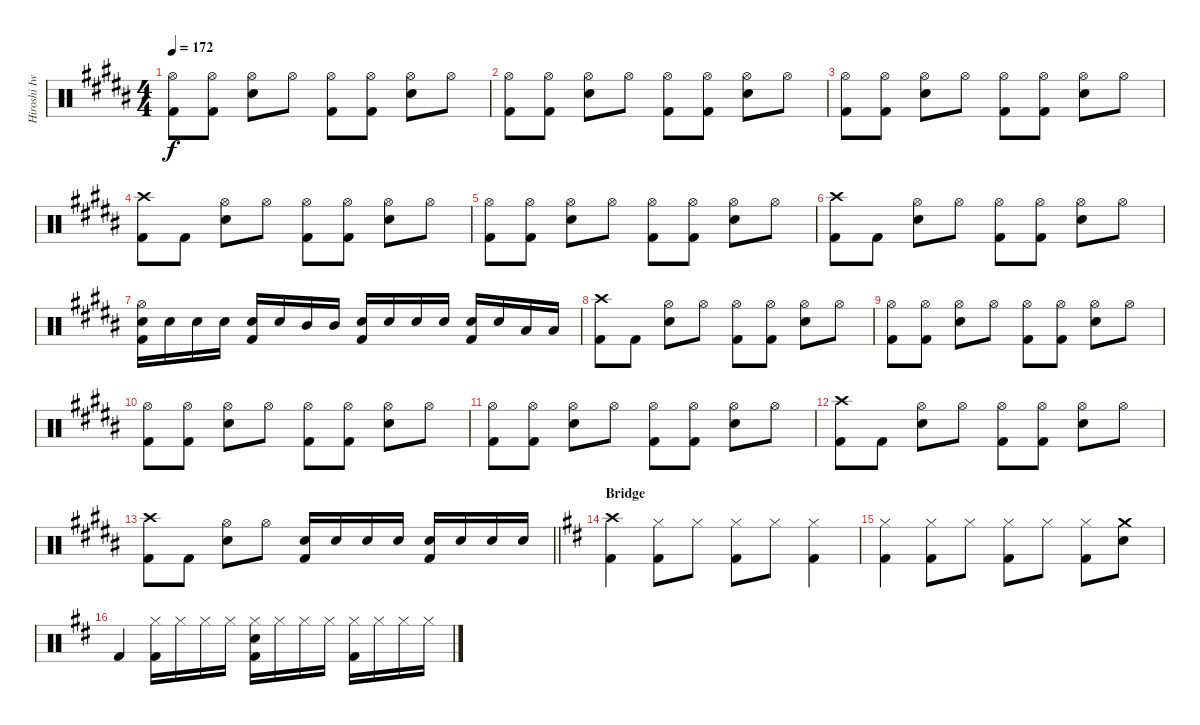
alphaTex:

\track ("Hiroshi Iwasaki - Drums" "Hiroshi Iw") {instrument percussion}
\staff {score}
\articulation defaults
\ts (4 4)
\tempo 172
\clef neutral
\ks b
("Hi-Hat (open)" "Kick (hit) 2").8{dy f} ("Hi-Hat (open)" "Kick (hit) 2").8 ("Snare (hit) 2" "Hi-Hat (open)").8 "Hi-Hat (open)".8 ("Hi-Hat (open)" "Kick (hit) 2").8 ("Hi-Hat (open)" "Kick (hit) 2").8 ("Snare (hit) 2" "Hi-Hat (open)").8 "Hi-Hat (open)".8 |
("Hi-Hat (open)" "Kick (hit) 2").8 ("Hi-Hat (open)" "Kick (hit) 2").8 ("Snare (hit) 2" "Hi-Hat (open)").8 "Hi-Hat (open)".8 ("Hi-Hat (open)" "Kick (hit) 2").8 ("Hi-Hat (open)" "Kick (hit) 2").8 ("Snare (hit) 2" "Hi-Hat (open)").8 "Hi-Hat (open)".8 |
("Hi-Hat (open)" "Kick (hit) 2").8 ("Hi-Hat (open)" "Kick (hit) 2").8 ("Snare (hit) 2" "Hi-Hat (open)").8 "Hi-Hat (open)".8 ("Hi-Hat (open)" "Kick (hit) 2").8 ("Hi-Hat (open)" "Kick (hit) 2").8 ("Snare (hit) 2" "Hi-Hat (open)").8 "Hi-Hat (open)".8 |
("Crash high (hit)" "Kick (hit) 2").8 "Kick (hit) 2".8 ("Snare (hit) 2" "Hi-Hat (open)").8 "Hi-Hat (open)".8 ("Hi-Hat (open)" "Kick (hit) 2").8 ("Hi-Hat (open)" "Kick (hit) 2").8 ("Snare (hit) 2" "Hi-Hat (open)").8 "Hi-Hat (open)".8 |
("Hi-Hat (open)" "Kick (hit) 2").8 ("Hi-Hat (open)" "Kick (hit) 2").8 ("Snare (hit) 2" "Hi-Hat (open)").8 "Hi-Hat (open)".8 ("Hi-Hat (open)" "Kick (hit) 2").8 ("Hi-Hat (open)" "Kick (hit) 2").8 ("Snare (hit) 2" "Hi-Hat (open)").8 "Hi-Hat (open)".8 |
("Crash high (hit)" "Kick (hit) 2").8 "Kick (hit) 2".8 ("Snare (hit) 2" "Hi-Hat (open)").8 "Hi-Hat (open)".8 ("Hi-Hat (open)" "Kick (hit) 2").8 ("Hi-Hat (open)" "Kick (hit) 2").8 ("Snare (hit) 2" "Hi-Hat (open)").8 "Hi-Hat (open)".8 |
("Snare (hit) 2" "Hi-Hat (open)" "Kick (hit) 2").16 "Snare (hit) 2".16 "Snare (hit) 2".16 "Snare (hit) 2".16 ("Snare (hit) 2" "Kick (hit) 2").16 "Snare (hit) 2".16 "Mid Tom (hit)".16 "Mid Tom (hit)".16 ("Snare (hit) 2" "Kick (hit) 2").16 "Snare (hit) 2".16 "Snare (hit) 2".16 "Snare (hit) 2".16 ("Snare (hit) 2" "Kick (hit) 2").16 "Snare (hit) 2".16 "Low Tom (hit)".16 "Low Tom (hit)".16 |
("Crash high (hit)" "Kick (hit) 2").8 "Kick (hit) 2".8 ("Snare (hit) 2" "Hi-Hat (open)").8 "Hi-Hat (open)".8 ("Hi-Hat (open)" "Kick (hit) 2").8 ("Hi-Hat (open)" "Kick (hit) 2").8 ("Snare (hit) 2" "Hi-Hat (open)").8 "Hi-Hat (open)".8 |
("Hi-Hat (open)" "Kick (hit) 2").8 ("Hi-Hat (open)" "Kick (hit) 2").8 ("Snare (hit) 2" "Hi-Hat (open)").8 "Hi-Hat (open)".8 ("Hi-Hat (open)" "Kick (hit) 2").8 ("Hi-Hat (open)" "Kick (hit) 2").8 ("Snare (hit) 2" "Hi-Hat (open)").8 "Hi-Hat (open)".8 |
("Hi-Hat (open)" "Kick (hit) 2").8 ("Hi-Hat (open)" "Kick (hit) 2").8 ("Snare (hit) 2" "Hi-Hat (open)").8 "Hi-Hat (open)".8 ("Hi-Hat (open)" "Kick (hit) 2").8 ("Hi-Hat (open)" "Kick (hit) 2").8 ("Snare (hit) 2" "Hi-Hat (open)").8 "Hi-Hat (open)".8 |
("Hi-Hat (open)" "Kick (hit) 2").8 ("Hi-Hat (open)" "Kick (hit) 2").8 ("Snare (hit) 2" "Hi-Hat (open)").8 "Hi-Hat (open)".8 ("Hi-Hat (open)" "Kick (hit) 2").8 ("Hi-Hat (open)" "Kick (hit) 2").8 ("Snare (hit) 2" "Hi-Hat (open)").8 "Hi-Hat (open)".8 |
("Crash high (hit)" "Kick (hit) 2").8 "Kick (hit) 2".8 ("Snare (hit) 2" "Hi-Hat (open)").8 "Hi-Hat (open)".8 ("Hi-Hat (open)" "Kick (hit) 2").8 ("Hi-Hat (open)" "Kick (hit) 2").8 ("Snare (hit) 2" "Hi-Hat (open)").8 "Hi-Hat (open)".8 |
\barLineRight lightlight
("Crash high (hit)" "Kick (hit) 2").8 "Kick (hit) 2".8 ("Snare (hit) 2" "Hi-Hat (open)").8 "Hi-Hat (open)".8 ("Snare (hit) 2" "Kick (hit) 2").16 "Snare (hit) 2".16 "Snare (hit) 2".16 "Snare (hit) 2".16 ("Snare (hit) 2" "Kick (hit) 2").16 "Snare (hit) 2".16 "Snare (hit) 2".16 "Snare (hit) 2".16 |
\section ("" "Bridge")
\ks d
("Crash high (hit)" "Kick (hit) 2").4 ("Hi-Hat (closed)" "Kick (hit) 2").8 "Hi-Hat (closed)".8 ("Hi-Hat (closed)" "Kick (hit) 2").8 "Hi-Hat (closed)".8 ("Hi-Hat (closed)" "Kick (hit) 2").4 |
("Hi-Hat (closed)" "Kick (hit) 2").4 ("Hi-Hat (closed)" "Kick (hit) 2").8 "Hi-Hat (closed)".8 ("Hi-Hat (closed)" "Kick (hit) 2").8 "Hi-Hat (closed)".8 ("Hi-Hat (closed)" "Kick (hit) 2").8 ("Snare (hit) 2" "Crash medium (hit)").8 |
"Kick (hit) 2".4 ("Hi-Hat (closed)" "Kick (hit) 2").16 "Hi-Hat (closed)".16 "Hi-Hat (closed)".16 "Hi-Hat (closed)".16 ("Snare (hit) 2" "Hi-Hat (closed)" "Kick (hit) 2").16 "Hi-Hat (closed)".16 "Hi-Hat (closed)".16 "Hi-Hat (closed)".16 ("Hi-Hat (closed)" "Kick (hit) 2").16 "Hi-Hat (closed)".16 "Hi-Hat (closed)".16 "Hi-Hat (closed)".16
